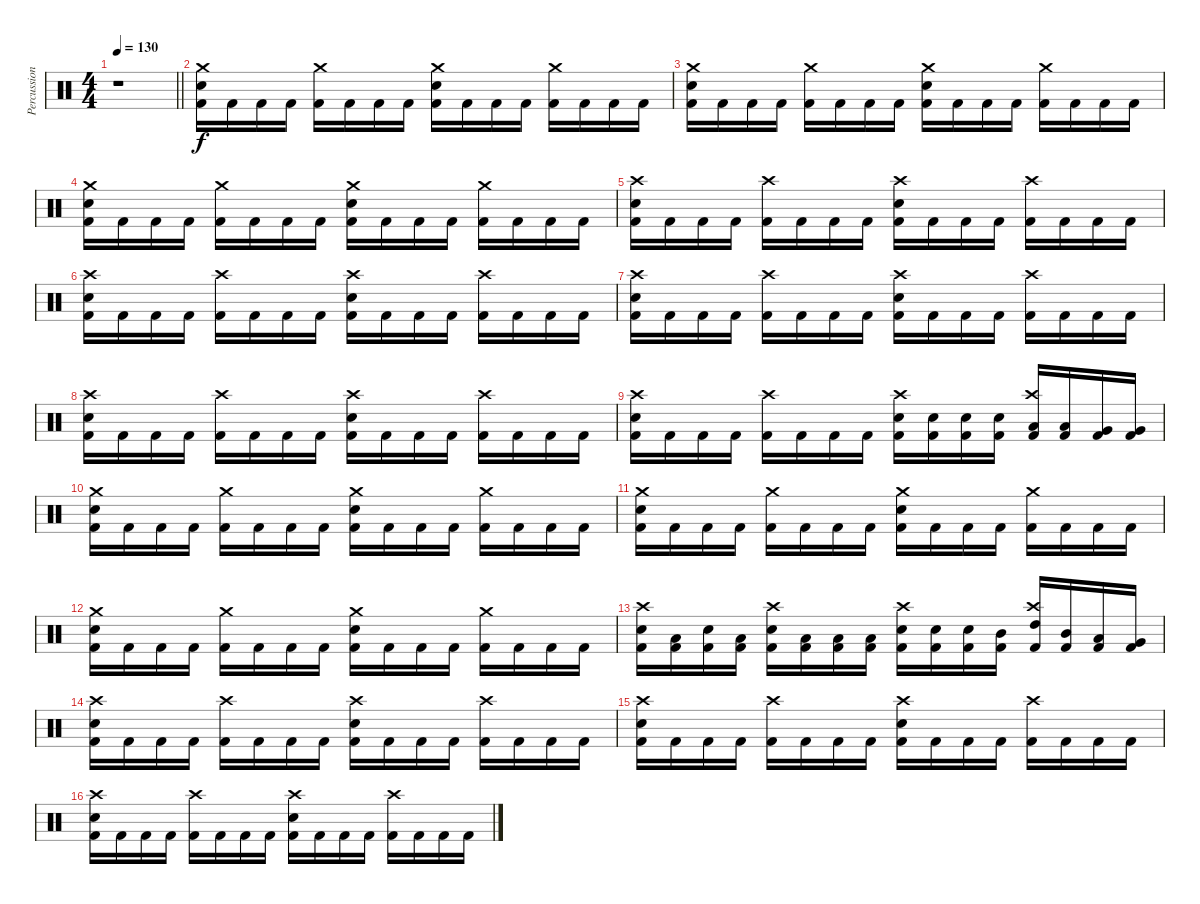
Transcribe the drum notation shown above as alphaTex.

\track ("Percussion" "Percussion") {instrument percussion}
\staff {score}
\articulation defaults
\ts (4 4)
\tempo 130
\clef neutral
\barLineRight lightlight
\ks c
r.1{dy f} |
\section ("" "")
("Crash medium (hit)" "Snare (hit) 2" "Kick (hit) 2").16 "Kick (hit) 2".16 "Kick (hit) 2".16 "Kick (hit) 2".16 ("Crash medium (hit)" "Kick (hit) 2").16 "Kick (hit) 2".16 "Kick (hit) 2".16 "Kick (hit) 2".16 ("Crash medium (hit)" "Snare (hit) 2" "Kick (hit) 2").16 "Kick (hit) 2".16 "Kick (hit) 2".16 "Kick (hit) 2".16 ("Crash medium (hit)" "Kick (hit) 2").16 "Kick (hit) 2".16 "Kick (hit) 2".16 "Kick (hit) 2".16 |
("Crash medium (hit)" "Snare (hit) 2" "Kick (hit) 2").16 "Kick (hit) 2".16 "Kick (hit) 2".16 "Kick (hit) 2".16 ("Crash medium (hit)" "Kick (hit) 2").16 "Kick (hit) 2".16 "Kick (hit) 2".16 "Kick (hit) 2".16 ("Crash medium (hit)" "Snare (hit) 2" "Kick (hit) 2").16 "Kick (hit) 2".16 "Kick (hit) 2".16 "Kick (hit) 2".16 ("Crash medium (hit)" "Kick (hit) 2").16 "Kick (hit) 2".16 "Kick (hit) 2".16 "Kick (hit) 2".16 |
("Crash medium (hit)" "Snare (hit) 2" "Kick (hit) 2").16 "Kick (hit) 2".16 "Kick (hit) 2".16 "Kick (hit) 2".16 ("Crash medium (hit)" "Kick (hit) 2").16 "Kick (hit) 2".16 "Kick (hit) 2".16 "Kick (hit) 2".16 ("Crash medium (hit)" "Snare (hit) 2" "Kick (hit) 2").16 "Kick (hit) 2".16 "Kick (hit) 2".16 "Kick (hit) 2".16 ("Crash medium (hit)" "Kick (hit) 2").16 "Kick (hit) 2".16 "Kick (hit) 2".16 "Kick (hit) 2".16 |
("Crash high (hit)" "Snare (hit) 2" "Kick (hit) 2").16 "Kick (hit) 2".16 "Kick (hit) 2".16 "Kick (hit) 2".16 ("Crash high (hit)" "Kick (hit) 2").16 "Kick (hit) 2".16 "Kick (hit) 2".16 "Kick (hit) 2".16 ("Crash high (hit)" "Snare (hit) 2" "Kick (hit) 2").16 "Kick (hit) 2".16 "Kick (hit) 2".16 "Kick (hit) 2".16 ("Crash high (hit)" "Kick (hit) 2").16 "Kick (hit) 2".16 "Kick (hit) 2".16 "Kick (hit) 2".16 |
("Crash high (hit)" "Snare (hit) 2" "Kick (hit) 2").16 "Kick (hit) 2".16 "Kick (hit) 2".16 "Kick (hit) 2".16 ("Crash high (hit)" "Kick (hit) 2").16 "Kick (hit) 2".16 "Kick (hit) 2".16 "Kick (hit) 2".16 ("Crash high (hit)" "Snare (hit) 2" "Kick (hit) 2").16 "Kick (hit) 2".16 "Kick (hit) 2".16 "Kick (hit) 2".16 ("Crash high (hit)" "Kick (hit) 2").16 "Kick (hit) 2".16 "Kick (hit) 2".16 "Kick (hit) 2".16 |
("Crash high (hit)" "Snare (hit) 2" "Kick (hit) 2").16 "Kick (hit) 2".16 "Kick (hit) 2".16 "Kick (hit) 2".16 ("Crash high (hit)" "Kick (hit) 2").16 "Kick (hit) 2".16 "Kick (hit) 2".16 "Kick (hit) 2".16 ("Crash high (hit)" "Snare (hit) 2" "Kick (hit) 2").16 "Kick (hit) 2".16 "Kick (hit) 2".16 "Kick (hit) 2".16 ("Crash high (hit)" "Kick (hit) 2").16 "Kick (hit) 2".16 "Kick (hit) 2".16 "Kick (hit) 2".16 |
("Crash high (hit)" "Snare (hit) 2" "Kick (hit) 2").16 "Kick (hit) 2".16 "Kick (hit) 2".16 "Kick (hit) 2".16 ("Crash high (hit)" "Kick (hit) 2").16 "Kick (hit) 2".16 "Kick (hit) 2".16 "Kick (hit) 2".16 ("Crash high (hit)" "Snare (hit) 2" "Kick (hit) 2").16 "Kick (hit) 2".16 "Kick (hit) 2".16 "Kick (hit) 2".16 ("Crash high (hit)" "Kick (hit) 2").16 "Kick (hit) 2".16 "Kick (hit) 2".16 "Kick (hit) 2".16 |
("Crash high (hit)" "Snare (hit) 2" "Kick (hit) 2").16 "Kick (hit) 2".16 "Kick (hit) 2".16 "Kick (hit) 2".16 ("Crash high (hit)" "Kick (hit) 2").16 "Kick (hit) 2".16 "Kick (hit) 2".16 "Kick (hit) 2".16 ("Crash high (hit)" "Snare (hit) 2" "Kick (hit) 2").16 ("Snare (hit) 2" "Kick (hit) 2").16 ("Snare (hit) 2" "Kick (hit) 2").16 ("Snare (hit) 2" "Kick (hit) 2").16 ("Crash high (hit)" "Low Tom (hit)" "Kick (hit) 2").16 ("Low Tom (hit)" "Kick (hit) 2").16 ("Very Low Tom (hit)" "Kick (hit) 2").16 ("Very Low Tom (hit)" "Kick (hit) 2").16 |
("Crash medium (hit)" "Snare (hit) 2" "Kick (hit) 2").16 "Kick (hit) 2".16 "Kick (hit) 2".16 "Kick (hit) 2".16 ("Crash medium (hit)" "Kick (hit) 2").16 "Kick (hit) 2".16 "Kick (hit) 2".16 "Kick (hit) 2".16 ("Crash medium (hit)" "Snare (hit) 2" "Kick (hit) 2").16 "Kick (hit) 2".16 "Kick (hit) 2".16 "Kick (hit) 2".16 ("Crash medium (hit)" "Kick (hit) 2").16 "Kick (hit) 2".16 "Kick (hit) 2".16 "Kick (hit) 2".16 |
("Crash medium (hit)" "Snare (hit) 2" "Kick (hit) 2").16 "Kick (hit) 2".16 "Kick (hit) 2".16 "Kick (hit) 2".16 ("Crash medium (hit)" "Kick (hit) 2").16 "Kick (hit) 2".16 "Kick (hit) 2".16 "Kick (hit) 2".16 ("Crash medium (hit)" "Snare (hit) 2" "Kick (hit) 2").16 "Kick (hit) 2".16 "Kick (hit) 2".16 "Kick (hit) 2".16 ("Crash medium (hit)" "Kick (hit) 2").16 "Kick (hit) 2".16 "Kick (hit) 2".16 "Kick (hit) 2".16 |
("Crash medium (hit)" "Snare (hit) 2" "Kick (hit) 2").16 "Kick (hit) 2".16 "Kick (hit) 2".16 "Kick (hit) 2".16 ("Crash medium (hit)" "Kick (hit) 2").16 "Kick (hit) 2".16 "Kick (hit) 2".16 "Kick (hit) 2".16 ("Crash medium (hit)" "Snare (hit) 2" "Kick (hit) 2").16 "Kick (hit) 2".16 "Kick (hit) 2".16 "Kick (hit) 2".16 ("Crash medium (hit)" "Kick (hit) 2").16 "Kick (hit) 2".16 "Kick (hit) 2".16 "Kick (hit) 2".16 |
("Crash high (hit)" "Snare (hit) 2" "Kick (hit) 2").16 ("Low Tom (hit)" "Kick (hit) 2").16 ("Snare (hit) 2" "Kick (hit) 2").16 ("Low Tom (hit)" "Kick (hit) 2").16 ("Crash high (hit)" "Snare (hit) 2" "Kick (hit) 2").16 ("Low Tom (hit)" "Kick (hit) 2").16 ("Low Tom (hit)" "Kick (hit) 2").16 ("Low Tom (hit)" "Kick (hit) 2").16 ("Crash high (hit)" "Snare (hit) 2" "Kick (hit) 2").16 ("Snare (hit) 2" "Kick (hit) 2").16 ("Snare (hit) 2" "Kick (hit) 2").16 ("Mid Tom (hit)" "Kick (hit) 2").16 ("Crash high (hit)" "High Tom (hit)" "Kick (hit) 2").16 ("Mid Tom (hit)" "Kick (hit) 2").16 ("Low Tom (hit)" "Kick (hit) 2").16 ("Very Low Tom (hit)" "Kick (hit) 2").16 |
("Crash high (hit)" "Snare (hit) 2" "Kick (hit) 2").16 "Kick (hit) 2".16 "Kick (hit) 2".16 "Kick (hit) 2".16 ("Crash high (hit)" "Kick (hit) 2").16 "Kick (hit) 2".16 "Kick (hit) 2".16 "Kick (hit) 2".16 ("Crash high (hit)" "Snare (hit) 2" "Kick (hit) 2").16 "Kick (hit) 2".16 "Kick (hit) 2".16 "Kick (hit) 2".16 ("Crash high (hit)" "Kick (hit) 2").16 "Kick (hit) 2".16 "Kick (hit) 2".16 "Kick (hit) 2".16 |
("Crash high (hit)" "Snare (hit) 2" "Kick (hit) 2").16 "Kick (hit) 2".16 "Kick (hit) 2".16 "Kick (hit) 2".16 ("Crash high (hit)" "Kick (hit) 2").16 "Kick (hit) 2".16 "Kick (hit) 2".16 "Kick (hit) 2".16 ("Crash high (hit)" "Snare (hit) 2" "Kick (hit) 2").16 "Kick (hit) 2".16 "Kick (hit) 2".16 "Kick (hit) 2".16 ("Crash high (hit)" "Kick (hit) 2").16 "Kick (hit) 2".16 "Kick (hit) 2".16 "Kick (hit) 2".16 |
("Crash high (hit)" "Snare (hit) 2" "Kick (hit) 2").16 "Kick (hit) 2".16 "Kick (hit) 2".16 "Kick (hit) 2".16 ("Crash high (hit)" "Kick (hit) 2").16 "Kick (hit) 2".16 "Kick (hit) 2".16 "Kick (hit) 2".16 ("Crash high (hit)" "Snare (hit) 2" "Kick (hit) 2").16 "Kick (hit) 2".16 "Kick (hit) 2".16 "Kick (hit) 2".16 ("Crash high (hit)" "Kick (hit) 2").16 "Kick (hit) 2".16 "Kick (hit) 2".16 "Kick (hit) 2".16
